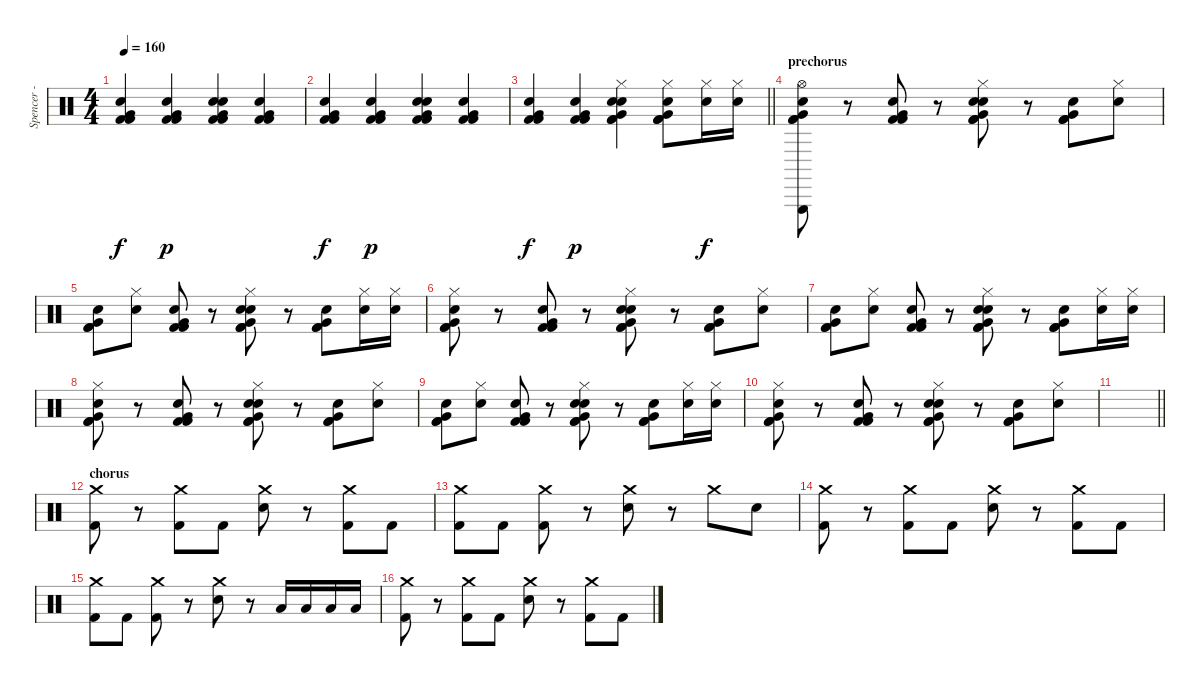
\track ("Spencer - Drums" "Spencer - ") {instrument percussion}
\staff {score}
\articulation defaults
\ts (4 4)
\tempo 160
\clef neutral
\ks c
("Very Low Tom (hit)" "Kick (hit) 2" "Snare (hit) 2" "Kick (hit) 2").4{dy f} ("Very Low Tom (hit)" "Kick (hit) 2" "Snare (hit) 2" "Kick (hit) 2").4{dy p} ("Very Low Tom (hit)" "Hand Clap (hit)" "Kick (hit) 2" "Snare (hit) 2" "Kick (hit) 2").4 ("Very Low Tom (hit)" "Kick (hit) 2" "Snare (hit) 2" "Kick (hit) 2").4 |
("Very Low Tom (hit)" "Kick (hit) 2" "Snare (hit) 2" "Kick (hit) 2").4{dy f} ("Very Low Tom (hit)" "Kick (hit) 2" "Snare (hit) 2" "Kick (hit) 2").4{dy p} ("Very Low Tom (hit)" "Hand Clap (hit)" "Kick (hit) 2" "Snare (hit) 2" "Kick (hit) 2").4 ("Very Low Tom (hit)" "Kick (hit) 2" "Snare (hit) 2" "Kick (hit) 2").4 |
\barLineRight lightlight
("Very Low Tom (hit)" "Kick (hit) 2" "Snare (hit) 2" "Kick (hit) 2").4{dy f} ("Very Low Tom (hit)" "Kick (hit) 2" "Snare (hit) 2" "Kick (hit) 2").4{dy p} ("Very Low Tom (hit)" "Hand Clap (hit)" "Kick (hit) 2" "Snare (hit) 2" "Hi-Hat (closed)" "Kick (hit) 2").4 ("Very Low Tom (hit)" "Kick (hit) 2" "Snare (hit) 2" "Hi-Hat (closed)" "Kick (hit) 2").8 ("Snare (hit) 2" "Hi-Hat (closed)").16{dy f} ("Snare (hit) 2" "Hi-Hat (closed)").16 |
\section ("" "prechorus")
("Very Low Tom (hit)" "Triangle (hit)" "Snare (hit) 2" "Hi-Hat (open)" "Kick (hit) 2" "Kick (hit) 2").8 r.8 ("Very Low Tom (hit)" "Snare (hit) 2" "Kick (hit) 2" "Kick (hit) 2").8 r.8 ("Very Low Tom (hit)" "Hi-Hat (closed)" "Snare (hit) 2" "Snare (hit) 2" "Kick (hit) 2" "Kick (hit) 2").8 r.8 ("Very Low Tom (hit)" "Snare (hit) 2" "Kick (hit) 2" "Kick (hit) 2").8 ("Hi-Hat (closed)" "Snare (hit) 2").8 |
("Very Low Tom (hit)" "Snare (hit) 2" "Kick (hit) 2" "Kick (hit) 2").8 ("Hi-Hat (closed)" "Snare (hit) 2").8 ("Very Low Tom (hit)" "Snare (hit) 2" "Kick (hit) 2" "Kick (hit) 2").8 r.8 ("Very Low Tom (hit)" "Hi-Hat (closed)" "Snare (hit) 2" "Snare (hit) 2" "Kick (hit) 2" "Kick (hit) 2").8 r.8 ("Very Low Tom (hit)" "Snare (hit) 2" "Kick (hit) 2" "Kick (hit) 2").8 ("Hi-Hat (closed)" "Snare (hit) 2").16 ("Hi-Hat (closed)" "Snare (hit) 2").16 |
("Very Low Tom (hit)" "Snare (hit) 2" "Hi-Hat (closed)" "Kick (hit) 2" "Kick (hit) 2").8 r.8 ("Very Low Tom (hit)" "Snare (hit) 2" "Kick (hit) 2" "Kick (hit) 2").8 r.8 ("Very Low Tom (hit)" "Hi-Hat (closed)" "Snare (hit) 2" "Snare (hit) 2" "Kick (hit) 2" "Kick (hit) 2").8 r.8 ("Very Low Tom (hit)" "Snare (hit) 2" "Kick (hit) 2" "Kick (hit) 2").8 ("Hi-Hat (closed)" "Snare (hit) 2").8 |
("Very Low Tom (hit)" "Snare (hit) 2" "Kick (hit) 2" "Kick (hit) 2").8 ("Hi-Hat (closed)" "Snare (hit) 2").8 ("Very Low Tom (hit)" "Snare (hit) 2" "Kick (hit) 2" "Kick (hit) 2").8 r.8 ("Very Low Tom (hit)" "Hi-Hat (closed)" "Snare (hit) 2" "Snare (hit) 2" "Kick (hit) 2" "Kick (hit) 2").8 r.8 ("Very Low Tom (hit)" "Snare (hit) 2" "Kick (hit) 2" "Kick (hit) 2").8 ("Hi-Hat (closed)" "Snare (hit) 2").16 ("Hi-Hat (closed)" "Snare (hit) 2").16 |
("Very Low Tom (hit)" "Snare (hit) 2" "Hi-Hat (closed)" "Kick (hit) 2" "Kick (hit) 2").8 r.8 ("Very Low Tom (hit)" "Snare (hit) 2" "Kick (hit) 2" "Kick (hit) 2").8 r.8 ("Very Low Tom (hit)" "Hi-Hat (closed)" "Snare (hit) 2" "Snare (hit) 2" "Kick (hit) 2" "Kick (hit) 2").8 r.8 ("Very Low Tom (hit)" "Snare (hit) 2" "Kick (hit) 2" "Kick (hit) 2").8 ("Hi-Hat (closed)" "Snare (hit) 2").8 |
("Very Low Tom (hit)" "Snare (hit) 2" "Kick (hit) 2" "Kick (hit) 2").8 ("Hi-Hat (closed)" "Snare (hit) 2").8 ("Very Low Tom (hit)" "Snare (hit) 2" "Kick (hit) 2" "Kick (hit) 2").8 r.8 ("Very Low Tom (hit)" "Hi-Hat (closed)" "Snare (hit) 2" "Snare (hit) 2" "Kick (hit) 2" "Kick (hit) 2").8 r.8 ("Very Low Tom (hit)" "Snare (hit) 2" "Kick (hit) 2" "Kick (hit) 2").8 ("Hi-Hat (closed)" "Snare (hit) 2").16 ("Hi-Hat (closed)" "Snare (hit) 2").16 |
("Very Low Tom (hit)" "Snare (hit) 2" "Hi-Hat (closed)" "Kick (hit) 2" "Kick (hit) 2").8 r.8 ("Very Low Tom (hit)" "Snare (hit) 2" "Kick (hit) 2" "Kick (hit) 2").8 r.8 ("Very Low Tom (hit)" "Hi-Hat (closed)" "Snare (hit) 2" "Snare (hit) 2" "Kick (hit) 2" "Kick (hit) 2").8 r.8 ("Very Low Tom (hit)" "Snare (hit) 2" "Kick (hit) 2" "Kick (hit) 2").8 ("Hi-Hat (closed)" "Snare (hit) 2").8 |
\barLineRight lightlight
|
\section ("" "chorus")
("Crash medium (hit)" "Kick (hit) 2").8 r.8 ("Crash medium (hit)" "Kick (hit) 2").8 "Kick (hit) 2".8 ("Crash medium (hit)" "Electric Snare (hit)").8 r.8 ("Crash medium (hit)" "Kick (hit) 2").8 "Kick (hit) 2".8 |
("Crash medium (hit)" "Kick (hit) 2").8 "Kick (hit) 2".8 ("Crash medium (hit)" "Kick (hit) 2").8 r.8 ("Crash medium (hit)" "Electric Snare (hit)").8 r.8 "Crash medium (hit)".8 "Electric Snare (hit)".8 |
("Crash medium (hit)" "Kick (hit) 2").8 r.8 ("Crash medium (hit)" "Kick (hit) 2").8 "Kick (hit) 2".8 ("Crash medium (hit)" "Electric Snare (hit)").8 r.8 ("Crash medium (hit)" "Kick (hit) 2").8 "Kick (hit) 2".8 |
("Crash medium (hit)" "Kick (hit) 2").8 "Kick (hit) 2".8 ("Crash medium (hit)" "Kick (hit) 2").8 r.8 ("Crash medium (hit)" "Electric Snare (hit)").8 r.8 "Low Tom (hit)".16 "Low Tom (hit)".16 "Low Tom (hit)".16 "Low Tom (hit)".16 |
("Crash medium (hit)" "Kick (hit) 2").8 r.8 ("Crash medium (hit)" "Kick (hit) 2").8 "Kick (hit) 2".8 ("Crash medium (hit)" "Electric Snare (hit)").8 r.8 ("Crash medium (hit)" "Kick (hit) 2").8 "Kick (hit) 2".8
